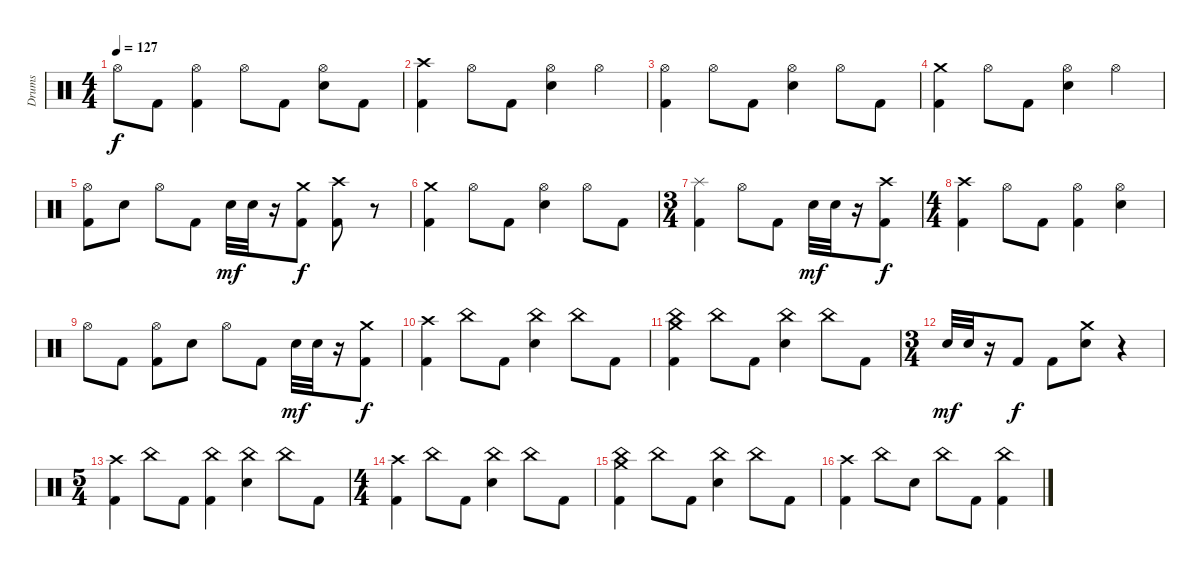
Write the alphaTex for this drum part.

\track ("Drums" "Drums") {instrument percussion}
\staff {score}
\articulation defaults
\ts (4 4)
\tempo 127
\clef neutral
\ks c "Hi-Hat (open)".8{dy f} "Kick (hit) 2".8
("Hi-Hat (open)" "Kick (hit) 2").4 "Hi-Hat (open)".8 "Kick (hit) 2".8 ("Hi-Hat (open)" "Electric Snare (hit)").8 "Kick (hit) 2".8 |
("Crash high (hit)" "Kick (hit) 2").4 "Hi-Hat (open)".8 "Kick (hit) 2".8 ("Electric Snare (hit)" "Hi-Hat (open)").4 "Hi-Hat (open)".4 |
("Hi-Hat (open)" "Kick (hit) 2").4 "Hi-Hat (open)".8 "Kick (hit) 2".8 ("Hi-Hat (open)" "Electric Snare (hit)").4 "Hi-Hat (open)".8 "Kick (hit) 2".8 |
("Kick (hit) 2" "Crash medium (hit)").4 "Hi-Hat (open)".8 "Kick (hit) 2".8 ("Hi-Hat (open)" "Electric Snare (hit)").4 "Hi-Hat (open)".4 |
("Hi-Hat (open)" "Kick (hit) 2").8 "Electric Snare (hit)".8 "Hi-Hat (open)".8 "Kick (hit) 2".8 "Electric Snare (hit)".32{dy mf} "Electric Snare (hit)".32 r.16 ("Kick (hit) 2" "Crash medium (hit)").8{dy f} ("Crash high (hit)" "Kick (hit) 2").8 r.8 |
("Crash medium (hit)" "Kick (hit) 2").4 "Hi-Hat (open)".8 "Kick (hit) 2".8 ("Electric Snare (hit)" "Hi-Hat (open)").4 "Hi-Hat (open)".8 "Kick (hit) 2".8 |
\ts (3 4)
("Kick (hit) 2" "Splash (hit)").4 "Hi-Hat (open)".8 "Kick (hit) 2".8 "Electric Snare (hit)".32{dy mf} "Electric Snare (hit)".32 r.16 ("Kick (hit) 2" "Crash high (hit)").8{dy f} |
\ts (4 4)
("Kick (hit) 2" "Crash high (hit)").4 "Hi-Hat (open)".8 "Kick (hit) 2".8 ("Hi-Hat (open)" "Kick (hit) 2").4 ("Hi-Hat (open)" "Electric Snare (hit)").4 |
"Hi-Hat (open)".8 "Kick (hit) 2".8 ("Hi-Hat (open)" "Kick (hit) 2").8 "Electric Snare (hit)".8 "Hi-Hat (open)".8 "Kick (hit) 2".8 "Electric Snare (hit)".32{dy mf} "Electric Snare (hit)".32 r.16 ("Kick (hit) 2" "Crash medium (hit)").8{dy f} |
("Kick (hit) 2" "Crash high (hit)").4 "China (hit)".8 "Kick (hit) 2".8 ("China (hit)" "Electric Snare (hit)").4 "China (hit)".8 "Kick (hit) 2".8 |
("Kick (hit) 2" "Crash medium (hit)" "China (hit)").4 "China (hit)".8 "Kick (hit) 2".8 ("China (hit)" "Electric Snare (hit)").4 "China (hit)".8 "Kick (hit) 2".8 |
\ts (3 4)
"Electric Snare (hit)".32{dy mf} "Electric Snare (hit)".32 r.16 "Kick (hit) 2".8{dy f} "Kick (hit) 2".8 ("Electric Snare (hit)" "Crash medium (hit)").8 r.4 |
\ts (5 4)
("Crash high (hit)" "Kick (hit) 2").4 "China (hit)".8 "Kick (hit) 2".8 ("China (hit)" "Kick (hit) 2").4 ("China (hit)" "Electric Snare (hit)").4 "China (hit)".8 "Kick (hit) 2".8 |
\ts (4 4)
("Crash high (hit)" "Kick (hit) 2").4 "China (hit)".8 "Kick (hit) 2".8 ("China (hit)" "Electric Snare (hit)").4 "China (hit)".8 "Kick (hit) 2".8 |
("Kick (hit) 2" "Crash medium (hit)" "China (hit)").4 "China (hit)".8 "Kick (hit) 2".8 ("China (hit)" "Electric Snare (hit)").4 "China (hit)".8 "Kick (hit) 2".8 |
("Kick (hit) 2" "Crash high (hit)").4 "China (hit)".8 "Electric Snare (hit)".8 "China (hit)".8 "Kick (hit) 2".8 ("China (hit)" "Kick (hit) 2").4
